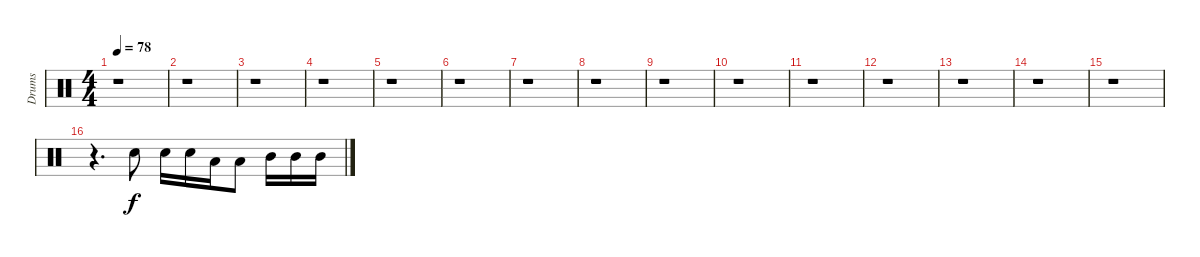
\track ("Drums" "Drums") {instrument percussion}
\staff {score}
\articulation defaults
\ts (4 4)
\tempo 78
\clef neutral
\ks c
r.1{dy f} |
r.1 |
r.1 |
r.1 |
r.1 |
r.1 |
r.1 |
r.1 |
r.1 |
r.1 |
r.1 |
r.1 |
r.1 |
r.1 |
r.1 |
r.4{d} "Snare (hit) 2".8 "Snare (hit) 2".16 "Snare (hit) 2".16 "Low Tom (hit)".16 "Low Tom (hit)".8 "Mid Tom (hit)".16 "Mid Tom (hit)".16 "Mid Tom (hit)".16
